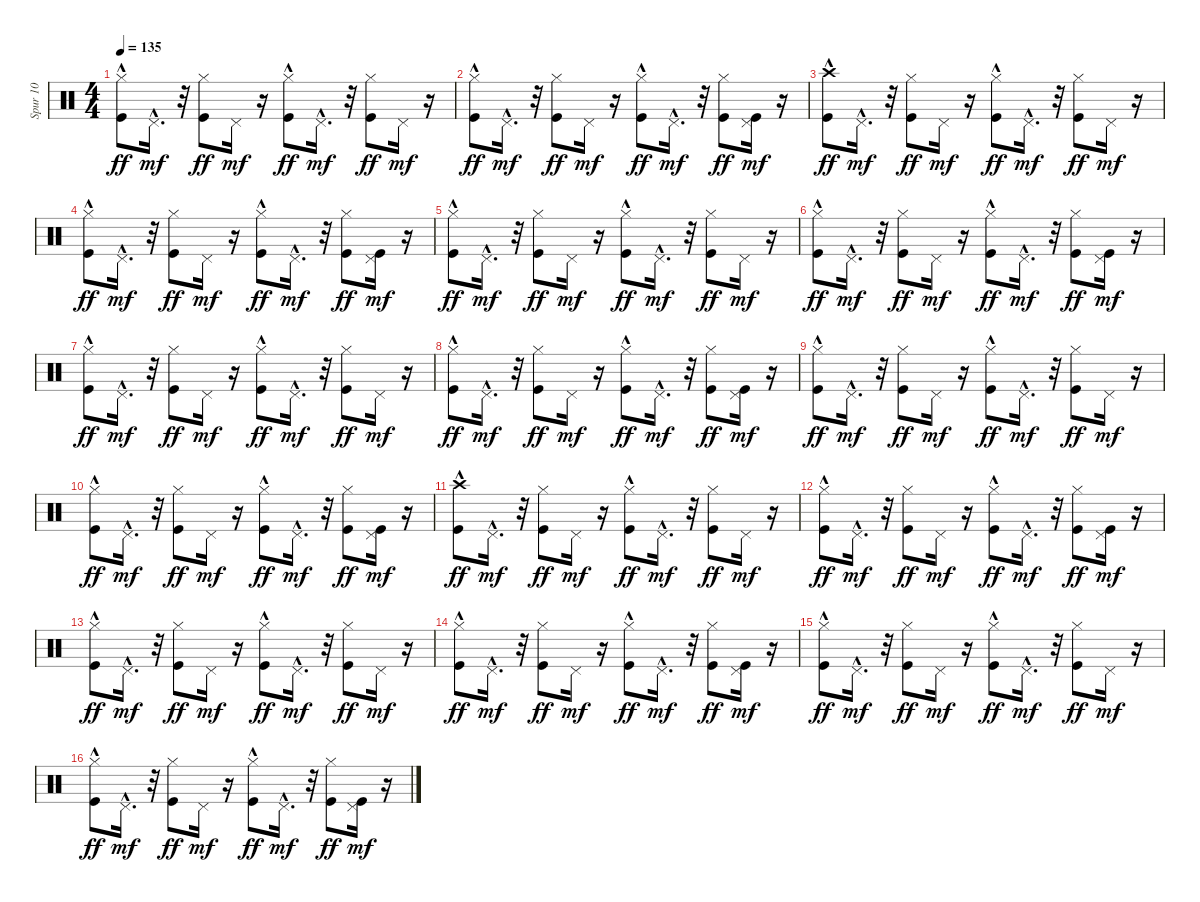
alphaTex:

\track ("Spur 10" "Spur 10") {instrument percussion}
\staff {score}
\articulation defaults
\ts (4 4)
\tempo 135
\clef neutral
\ks c
("Hi-Hat (closed)"{hac} "Kick (hit)").8{dy ff} "Pedal Hi-Hat (hit)"{hac}.16{d dy mf} r.32 ("Hi-Hat (closed)" "Kick (hit)").8{dy ff} "Pedal Hi-Hat (hit)".16{dy mf} r.16 ("Hi-Hat (closed)"{hac} "Kick (hit)").8{dy ff} "Pedal Hi-Hat (hit)"{hac}.16{d dy mf} r.32 ("Hi-Hat (closed)" "Kick (hit)").8{dy ff} "Pedal Hi-Hat (hit)".16{dy mf} r.16 |
("Hi-Hat (closed)"{hac} "Kick (hit)").8{dy ff} "Pedal Hi-Hat (hit)"{hac}.16{d dy mf} r.32 ("Hi-Hat (closed)" "Kick (hit)").8{dy ff} "Pedal Hi-Hat (hit)".16{dy mf} r.16 ("Hi-Hat (closed)"{hac} "Kick (hit)").8{dy ff} "Pedal Hi-Hat (hit)"{hac}.16{d dy mf} r.32 ("Hi-Hat (closed)" "Kick (hit)").8{dy ff} ("Kick (hit)" "Pedal Hi-Hat (hit)").16{dy mf} r.16 |
("Crash high (hit)"{hac} "Kick (hit)").8{dy ff} "Pedal Hi-Hat (hit)"{hac}.16{d dy mf} r.32 ("Hi-Hat (closed)" "Kick (hit)").8{dy ff} "Pedal Hi-Hat (hit)".16{dy mf} r.16 ("Hi-Hat (closed)"{hac} "Kick (hit)").8{dy ff} "Pedal Hi-Hat (hit)"{hac}.16{d dy mf} r.32 ("Hi-Hat (closed)" "Kick (hit)").8{dy ff} "Pedal Hi-Hat (hit)".16{dy mf} r.16 |
("Hi-Hat (closed)"{hac} "Kick (hit)").8{dy ff} "Pedal Hi-Hat (hit)"{hac}.16{d dy mf} r.32 ("Hi-Hat (closed)" "Kick (hit)").8{dy ff} "Pedal Hi-Hat (hit)".16{dy mf} r.16 ("Hi-Hat (closed)"{hac} "Kick (hit)").8{dy ff} "Pedal Hi-Hat (hit)"{hac}.16{d dy mf} r.32 ("Hi-Hat (closed)" "Kick (hit)").8{dy ff} ("Kick (hit)" "Pedal Hi-Hat (hit)").16{dy mf} r.16 |
("Hi-Hat (closed)"{hac} "Kick (hit)").8{dy ff} "Pedal Hi-Hat (hit)"{hac}.16{d dy mf} r.32 ("Hi-Hat (closed)" "Kick (hit)").8{dy ff} "Pedal Hi-Hat (hit)".16{dy mf} r.16 ("Hi-Hat (closed)"{hac} "Kick (hit)").8{dy ff} "Pedal Hi-Hat (hit)"{hac}.16{d dy mf} r.32 ("Hi-Hat (closed)" "Kick (hit)").8{dy ff} "Pedal Hi-Hat (hit)".16{dy mf} r.16 |
("Hi-Hat (closed)"{hac} "Kick (hit)").8{dy ff} "Pedal Hi-Hat (hit)"{hac}.16{d dy mf} r.32 ("Hi-Hat (closed)" "Kick (hit)").8{dy ff} "Pedal Hi-Hat (hit)".16{dy mf} r.16 ("Hi-Hat (closed)"{hac} "Kick (hit)").8{dy ff} "Pedal Hi-Hat (hit)"{hac}.16{d dy mf} r.32 ("Hi-Hat (closed)" "Kick (hit)").8{dy ff} ("Kick (hit)" "Pedal Hi-Hat (hit)").16{dy mf} r.16 |
("Hi-Hat (closed)"{hac} "Kick (hit)").8{dy ff} "Pedal Hi-Hat (hit)"{hac}.16{d dy mf} r.32 ("Hi-Hat (closed)" "Kick (hit)").8{dy ff} "Pedal Hi-Hat (hit)".16{dy mf} r.16 ("Hi-Hat (closed)"{hac} "Kick (hit)").8{dy ff} "Pedal Hi-Hat (hit)"{hac}.16{d dy mf} r.32 ("Hi-Hat (closed)" "Kick (hit)").8{dy ff} "Pedal Hi-Hat (hit)".16{dy mf} r.16 |
("Hi-Hat (closed)"{hac} "Kick (hit)").8{dy ff} "Pedal Hi-Hat (hit)"{hac}.16{d dy mf} r.32 ("Hi-Hat (closed)" "Kick (hit)").8{dy ff} "Pedal Hi-Hat (hit)".16{dy mf} r.16 ("Hi-Hat (closed)"{hac} "Kick (hit)").8{dy ff} "Pedal Hi-Hat (hit)"{hac}.16{d dy mf} r.32 ("Hi-Hat (closed)" "Kick (hit)").8{dy ff} ("Kick (hit)" "Pedal Hi-Hat (hit)").16{dy mf} r.16 |
("Hi-Hat (closed)"{hac} "Kick (hit)").8{dy ff} "Pedal Hi-Hat (hit)"{hac}.16{d dy mf} r.32 ("Hi-Hat (closed)" "Kick (hit)").8{dy ff} "Pedal Hi-Hat (hit)".16{dy mf} r.16 ("Hi-Hat (closed)"{hac} "Kick (hit)").8{dy ff} "Pedal Hi-Hat (hit)"{hac}.16{d dy mf} r.32 ("Hi-Hat (closed)" "Kick (hit)").8{dy ff} "Pedal Hi-Hat (hit)".16{dy mf} r.16 |
("Hi-Hat (closed)"{hac} "Kick (hit)").8{dy ff} "Pedal Hi-Hat (hit)"{hac}.16{d dy mf} r.32 ("Hi-Hat (closed)" "Kick (hit)").8{dy ff} "Pedal Hi-Hat (hit)".16{dy mf} r.16 ("Hi-Hat (closed)"{hac} "Kick (hit)").8{dy ff} "Pedal Hi-Hat (hit)"{hac}.16{d dy mf} r.32 ("Hi-Hat (closed)" "Kick (hit)").8{dy ff} ("Kick (hit)" "Pedal Hi-Hat (hit)").16{dy mf} r.16 |
("Crash high (hit)"{hac} "Kick (hit)").8{dy ff} "Pedal Hi-Hat (hit)"{hac}.16{d dy mf} r.32 ("Hi-Hat (closed)" "Kick (hit)").8{dy ff} "Pedal Hi-Hat (hit)".16{dy mf} r.16 ("Hi-Hat (closed)"{hac} "Kick (hit)").8{dy ff} "Pedal Hi-Hat (hit)"{hac}.16{d dy mf} r.32 ("Hi-Hat (closed)" "Kick (hit)").8{dy ff} "Pedal Hi-Hat (hit)".16{dy mf} r.16 |
("Hi-Hat (closed)"{hac} "Kick (hit)").8{dy ff} "Pedal Hi-Hat (hit)"{hac}.16{d dy mf} r.32 ("Hi-Hat (closed)" "Kick (hit)").8{dy ff} "Pedal Hi-Hat (hit)".16{dy mf} r.16 ("Hi-Hat (closed)"{hac} "Kick (hit)").8{dy ff} "Pedal Hi-Hat (hit)"{hac}.16{d dy mf} r.32 ("Hi-Hat (closed)" "Kick (hit)").8{dy ff} ("Kick (hit)" "Pedal Hi-Hat (hit)").16{dy mf} r.16 |
("Hi-Hat (closed)"{hac} "Kick (hit)").8{dy ff} "Pedal Hi-Hat (hit)"{hac}.16{d dy mf} r.32 ("Hi-Hat (closed)" "Kick (hit)").8{dy ff} "Pedal Hi-Hat (hit)".16{dy mf} r.16 ("Hi-Hat (closed)"{hac} "Kick (hit)").8{dy ff} "Pedal Hi-Hat (hit)"{hac}.16{d dy mf} r.32 ("Hi-Hat (closed)" "Kick (hit)").8{dy ff} "Pedal Hi-Hat (hit)".16{dy mf} r.16 |
("Hi-Hat (closed)"{hac} "Kick (hit)").8{dy ff} "Pedal Hi-Hat (hit)"{hac}.16{d dy mf} r.32 ("Hi-Hat (closed)" "Kick (hit)").8{dy ff} "Pedal Hi-Hat (hit)".16{dy mf} r.16 ("Hi-Hat (closed)"{hac} "Kick (hit)").8{dy ff} "Pedal Hi-Hat (hit)"{hac}.16{d dy mf} r.32 ("Hi-Hat (closed)" "Kick (hit)").8{dy ff} ("Kick (hit)" "Pedal Hi-Hat (hit)").16{dy mf} r.16 |
("Hi-Hat (closed)"{hac} "Kick (hit)").8{dy ff} "Pedal Hi-Hat (hit)"{hac}.16{d dy mf} r.32 ("Hi-Hat (closed)" "Kick (hit)").8{dy ff} "Pedal Hi-Hat (hit)".16{dy mf} r.16 ("Hi-Hat (closed)"{hac} "Kick (hit)").8{dy ff} "Pedal Hi-Hat (hit)"{hac}.16{d dy mf} r.32 ("Hi-Hat (closed)" "Kick (hit)").8{dy ff} "Pedal Hi-Hat (hit)".16{dy mf} r.16 |
("Hi-Hat (closed)"{hac} "Kick (hit)").8{dy ff} "Pedal Hi-Hat (hit)"{hac}.16{d dy mf} r.32 ("Hi-Hat (closed)" "Kick (hit)").8{dy ff} "Pedal Hi-Hat (hit)".16{dy mf} r.16 ("Hi-Hat (closed)"{hac} "Kick (hit)").8{dy ff} "Pedal Hi-Hat (hit)"{hac}.16{d dy mf} r.32 ("Hi-Hat (closed)" "Kick (hit)").8{dy ff} ("Kick (hit)" "Pedal Hi-Hat (hit)").16{dy mf} r.16
